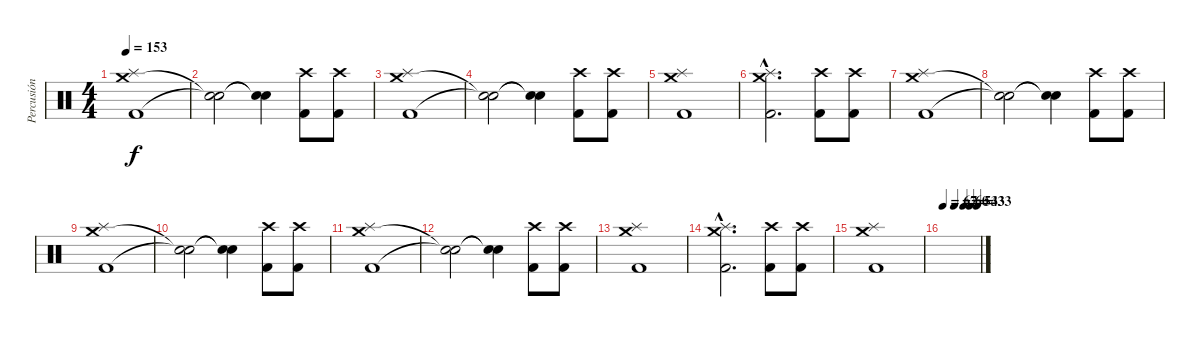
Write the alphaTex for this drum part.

\track ("Percusión" "Percusión") {instrument percussion}
\staff {score}
\articulation defaults
\ts (4 4)
\tempo 153
\tempo 77
\tempo 153
\clef neutral
\ks c
("Kick (hit) 2" "Crash medium (hit)" "Splash (hit)").1{dy f} |
("Snare (hit)"{t} "Snare (hit)"{t}).2 ("Snare (hit)"{t} "Snare (hit)"{t}).4 ("Kick (hit) 2" "Crash high (hit)").8 ("Kick (hit) 2" "Crash high (hit)").8 |
("Kick (hit) 2" "Crash medium (hit)" "Splash (hit)").1 |
("Snare (hit)"{t} "Snare (hit)"{t}).2 ("Snare (hit)"{t} "Snare (hit)"{t}).4 ("Kick (hit) 2" "Crash high (hit)").8 ("Kick (hit) 2" "Crash high (hit)").8 |
("Kick (hit) 2" "Crash medium (hit)" "Splash (hit)").1 |
("Kick (hit) 2"{hac} "Crash medium (hit)"{hac} "Splash (hit)"{hac}).2{d} ("Kick (hit) 2" "Crash high (hit)").8 ("Kick (hit) 2" "Crash high (hit)").8 |
("Kick (hit) 2" "Crash medium (hit)" "Splash (hit)").1 |
("Snare (hit)"{t} "Snare (hit)"{t}).2 ("Snare (hit)"{t} "Snare (hit)"{t}).4 ("Kick (hit) 2" "Crash high (hit)").8 ("Kick (hit) 2" "Crash high (hit)").8 |
("Kick (hit) 2" "Crash medium (hit)" "Splash (hit)").1 |
("Snare (hit)"{t} "Snare (hit)"{t}).2 ("Snare (hit)"{t} "Snare (hit)"{t}).4 ("Kick (hit) 2" "Crash high (hit)").8 ("Kick (hit) 2" "Crash high (hit)").8 |
("Kick (hit) 2" "Crash medium (hit)" "Splash (hit)").1 |
("Snare (hit)"{t} "Snare (hit)"{t}).2 ("Snare (hit)"{t} "Snare (hit)"{t}).4 ("Kick (hit) 2" "Crash high (hit)").8 ("Kick (hit) 2" "Crash high (hit)").8 |
("Kick (hit) 2" "Crash medium (hit)" "Splash (hit)").1 |
("Kick (hit) 2"{hac} "Crash medium (hit)"{hac} "Splash (hit)"{hac}).2{d} ("Kick (hit) 2" "Crash high (hit)").8 ("Kick (hit) 2" "Crash high (hit)").8 |
("Kick (hit) 2" "Crash medium (hit)" "Splash (hit)").1 |
\tempo 67
\tempo (60 0.3125)
\tempo (53 0.5625)
\tempo (43 0.75)
\tempo (33 0.9375)
